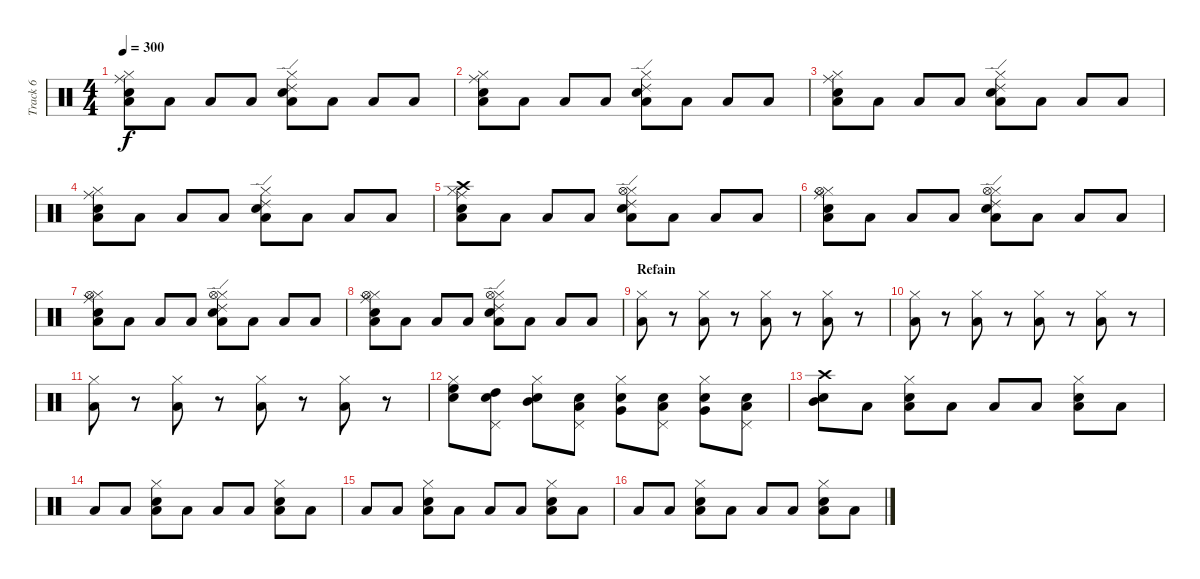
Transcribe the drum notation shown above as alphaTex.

\track ("Track 6" "Track 6") {instrument percussion}
\staff {score}
\articulation defaults
\ts (4 4)
\tempo 300
\clef neutral
\ks c
("Snare (hit) 2" "Low Tom (hit)" "Hi-Hat (closed)" "Ride (middle)").8{dy f} "Low Floor Tom (hit)".8 "Low Floor Tom (hit)".8 "Low Floor Tom (hit)".8 ("Electric Snare (hit)" "Low Tom (hit)" "Hi-Hat (closed)" "Ride (edge) 2").8 "Low Floor Tom (hit)".8 "Low Floor Tom (hit)".8 "Low Floor Tom (hit)".8 |
("Snare (hit) 2" "Low Tom (hit)" "Hi-Hat (closed)" "Ride (middle)").8 "Low Floor Tom (hit)".8 "Low Floor Tom (hit)".8 "Low Floor Tom (hit)".8 ("Electric Snare (hit)" "Low Tom (hit)" "Hi-Hat (closed)" "Ride (edge) 2").8 "Low Floor Tom (hit)".8 "Low Floor Tom (hit)".8 "Low Floor Tom (hit)".8 |
("Snare (hit) 2" "Low Tom (hit)" "Hi-Hat (closed)" "Ride (middle)").8 "Low Floor Tom (hit)".8 "Low Floor Tom (hit)".8 "Low Floor Tom (hit)".8 ("Electric Snare (hit)" "Low Tom (hit)" "Hi-Hat (closed)" "Ride (edge) 2").8 "Low Floor Tom (hit)".8 "Low Floor Tom (hit)".8 "Low Floor Tom (hit)".8 |
("Snare (hit) 2" "Low Tom (hit)" "Hi-Hat (closed)" "Ride (middle)").8 "Low Floor Tom (hit)".8 "Low Floor Tom (hit)".8 "Low Floor Tom (hit)".8 ("Electric Snare (hit)" "Low Tom (hit)" "Hi-Hat (closed)" "Ride (edge) 2").8 "Low Floor Tom (hit)".8 "Low Floor Tom (hit)".8 "Low Floor Tom (hit)".8 |
("Snare (hit) 2" "Low Tom (hit)" "Hi-Hat (closed)" "Crash high (hit)" "Ride (middle)").8 "Low Floor Tom (hit)".8 "Low Floor Tom (hit)".8 "Low Floor Tom (hit)".8 ("Electric Snare (hit)" "Low Tom (hit)" "Hi-Hat (closed)" "Hi-Hat (open)" "Ride (edge) 2").8 "Low Floor Tom (hit)".8 "Low Floor Tom (hit)".8 "Low Floor Tom (hit)".8 |
("Snare (hit) 2" "Low Tom (hit)" "Hi-Hat (closed)" "Hi-Hat (open)" "Ride (middle)").8 "Low Floor Tom (hit)".8 "Low Floor Tom (hit)".8 "Low Floor Tom (hit)".8 ("Electric Snare (hit)" "Low Tom (hit)" "Hi-Hat (closed)" "Hi-Hat (open)" "Ride (edge) 2").8 "Low Floor Tom (hit)".8 "Low Floor Tom (hit)".8 "Low Floor Tom (hit)".8 |
("Snare (hit) 2" "Low Tom (hit)" "Hi-Hat (closed)" "Hi-Hat (open)" "Ride (middle)").8 "Low Floor Tom (hit)".8 "Low Floor Tom (hit)".8 "Low Floor Tom (hit)".8 ("Electric Snare (hit)" "Low Tom (hit)" "Hi-Hat (closed)" "Hi-Hat (open)" "Ride (edge) 2").8 "Low Floor Tom (hit)".8 "Low Floor Tom (hit)".8 "Low Floor Tom (hit)".8 |
("Snare (hit) 2" "Low Tom (hit)" "Hi-Hat (closed)" "Hi-Hat (open)" "Ride (middle)").8 "Low Floor Tom (hit)".8 "Low Floor Tom (hit)".8 "Low Floor Tom (hit)".8 ("Electric Snare (hit)" "Low Tom (hit)" "Hi-Hat (closed)" "Hi-Hat (open)" "Ride (edge) 2").8 "Low Floor Tom (hit)".8 "Low Floor Tom (hit)".8 "Low Floor Tom (hit)".8 |
\section ("" "Refain")
("Low Floor Tom (hit)" "Hi-Hat (closed)").8 r.8 ("Low Floor Tom (hit)" "Hi-Hat (closed)").8 r.8 ("Low Floor Tom (hit)" "Hi-Hat (closed)").8 r.8 ("Low Floor Tom (hit)" "Hi-Hat (closed)").8 r.8 |
("Low Floor Tom (hit)" "Hi-Hat (closed)").8 r.8 ("Low Floor Tom (hit)" "Hi-Hat (closed)").8 r.8 ("Low Floor Tom (hit)" "Hi-Hat (closed)").8 r.8 ("Low Floor Tom (hit)" "Hi-Hat (closed)").8 r.8 |
("Low Floor Tom (hit)" "Hi-Hat (closed)").8 r.8 ("Low Floor Tom (hit)" "Hi-Hat (closed)").8 r.8 ("Low Floor Tom (hit)" "Hi-Hat (closed)").8 r.8 ("Low Floor Tom (hit)" "Hi-Hat (closed)").8 r.8 |
("High Floor Tom (hit)" "Electric Snare (hit)" "Hi-Hat (closed)").8 ("High Tom (hit)" "Electric Snare (hit)" "Pedal Hi-Hat (hit)").8 ("Mid Tom (hit)" "Electric Snare (hit)" "Hi-Hat (closed)").8 ("Low Tom (hit)" "Electric Snare (hit)" "Pedal Hi-Hat (hit)").8 ("Very Low Tom (hit)" "Electric Snare (hit)" "Hi-Hat (closed)").8 ("Low Floor Tom (hit)" "Electric Snare (hit)" "Pedal Hi-Hat (hit)").8 ("Very Low Tom (hit)" "Electric Snare (hit)" "Hi-Hat (closed)").8 ("Low Tom (hit)" "Electric Snare (hit)" "Pedal Hi-Hat (hit)").8 |
("Snare (hit) 2" "Mid Tom (hit)" "Crash high (hit)").8 "Low Floor Tom (hit)".8 ("Electric Snare (hit)" "Low Tom (hit)" "Hi-Hat (closed)").8 "Low Floor Tom (hit)".8 "Low Floor Tom (hit)".8 "Low Floor Tom (hit)".8 ("Electric Snare (hit)" "Low Tom (hit)" "Hi-Hat (closed)").8 "Low Floor Tom (hit)".8 |
"Low Floor Tom (hit)".8 "Low Floor Tom (hit)".8 ("Electric Snare (hit)" "Low Tom (hit)" "Hi-Hat (closed)").8 "Low Floor Tom (hit)".8 "Low Floor Tom (hit)".8 "Low Floor Tom (hit)".8 ("Electric Snare (hit)" "Low Tom (hit)" "Hi-Hat (closed)").8 "Low Floor Tom (hit)".8 |
"Low Floor Tom (hit)".8 "Low Floor Tom (hit)".8 ("Electric Snare (hit)" "Low Tom (hit)" "Hi-Hat (closed)").8 "Low Floor Tom (hit)".8 "Low Floor Tom (hit)".8 "Low Floor Tom (hit)".8 ("Electric Snare (hit)" "Low Tom (hit)" "Hi-Hat (closed)").8 "Low Floor Tom (hit)".8 |
"Low Floor Tom (hit)".8 "Low Floor Tom (hit)".8 ("Electric Snare (hit)" "Low Tom (hit)" "Hi-Hat (closed)").8 "Low Floor Tom (hit)".8 "Low Floor Tom (hit)".8 "Low Floor Tom (hit)".8 ("Electric Snare (hit)" "Low Tom (hit)" "Hi-Hat (closed)").8 "Low Floor Tom (hit)".8
